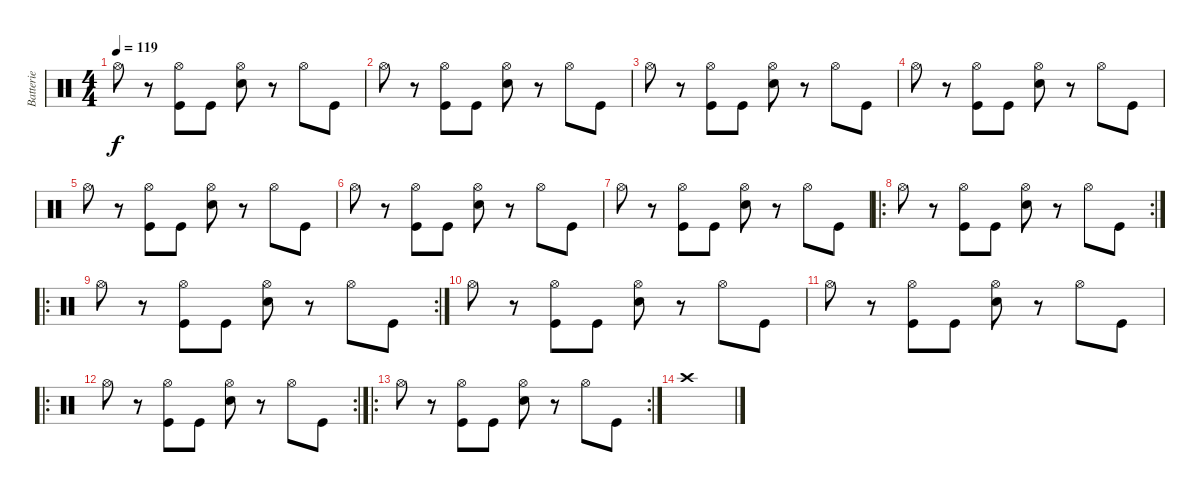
\track ("Batterie" "Batterie") {instrument percussion}
\staff {score}
\articulation defaults
\ts (4 4)
\tempo 119
\clef neutral
\ks c "Hi-Hat (open)".8{dy f}
r.8 ("Hi-Hat (open)" "Kick (hit)").8 "Kick (hit)".8 ("Hi-Hat (open)" "Electric Snare (hit)").8 r.8 "Hi-Hat (open)".8 "Kick (hit)".8 |
"Hi-Hat (open)".8 r.8 ("Hi-Hat (open)" "Kick (hit)").8 "Kick (hit)".8 ("Hi-Hat (open)" "Electric Snare (hit)").8 r.8 "Hi-Hat (open)".8 "Kick (hit)".8 |
"Hi-Hat (open)".8 r.8 ("Hi-Hat (open)" "Kick (hit)").8 "Kick (hit)".8 ("Hi-Hat (open)" "Electric Snare (hit)").8 r.8 "Hi-Hat (open)".8 "Kick (hit)".8 |
"Hi-Hat (open)".8 r.8 ("Hi-Hat (open)" "Kick (hit)").8 "Kick (hit)".8 ("Hi-Hat (open)" "Electric Snare (hit)").8 r.8 "Hi-Hat (open)".8 "Kick (hit)".8 |
"Hi-Hat (open)".8 r.8 ("Hi-Hat (open)" "Kick (hit)").8 "Kick (hit)".8 ("Hi-Hat (open)" "Electric Snare (hit)").8 r.8 "Hi-Hat (open)".8 "Kick (hit)".8 |
"Hi-Hat (open)".8 r.8 ("Hi-Hat (open)" "Kick (hit)").8 "Kick (hit)".8 ("Hi-Hat (open)" "Electric Snare (hit)").8 r.8 "Hi-Hat (open)".8 "Kick (hit)".8 |
"Hi-Hat (open)".8 r.8 ("Hi-Hat (open)" "Kick (hit)").8 "Kick (hit)".8 ("Hi-Hat (open)" "Electric Snare (hit)").8 r.8 "Hi-Hat (open)".8 "Kick (hit)".8 |
\ro
\rc 2 "Hi-Hat (open)".8
r.8 ("Hi-Hat (open)" "Kick (hit)").8 "Kick (hit)".8 ("Hi-Hat (open)" "Electric Snare (hit)").8 r.8 "Hi-Hat (open)".8 "Kick (hit)".8 |
\ro
\rc 2 "Hi-Hat (open)".8
r.8 ("Hi-Hat (open)" "Kick (hit)").8 "Kick (hit)".8 ("Hi-Hat (open)" "Electric Snare (hit)").8 r.8 "Hi-Hat (open)".8 "Kick (hit)".8 |
"Hi-Hat (open)".8 r.8 ("Hi-Hat (open)" "Kick (hit)").8 "Kick (hit)".8 ("Hi-Hat (open)" "Electric Snare (hit)").8 r.8 "Hi-Hat (open)".8 "Kick (hit)".8 |
"Hi-Hat (open)".8 r.8 ("Hi-Hat (open)" "Kick (hit)").8 "Kick (hit)".8 ("Hi-Hat (open)" "Electric Snare (hit)").8 r.8 "Hi-Hat (open)".8 "Kick (hit)".8 |
\ro
\rc 2 "Hi-Hat (open)".8
r.8 ("Hi-Hat (open)" "Kick (hit)").8 "Kick (hit)".8 ("Hi-Hat (open)" "Electric Snare (hit)").8 r.8 "Hi-Hat (open)".8 "Kick (hit)".8 |
\ro
\rc 2 "Hi-Hat (open)".8
r.8 ("Hi-Hat (open)" "Kick (hit)").8 "Kick (hit)".8 ("Hi-Hat (open)" "Electric Snare (hit)").8 r.8 "Hi-Hat (open)".8 "Kick (hit)".8 |
"Crash high (hit)".1
